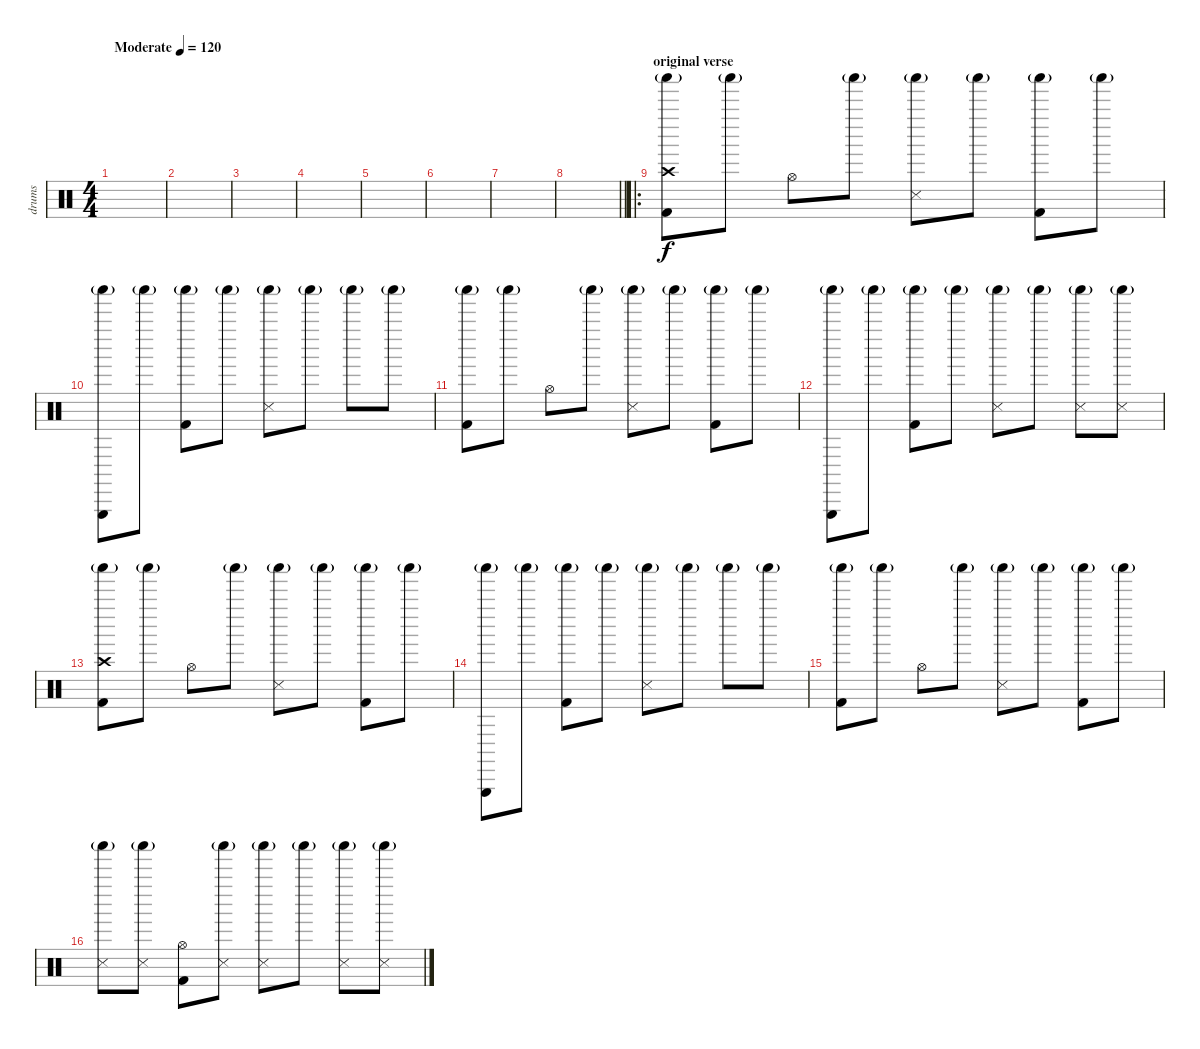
\track ("drums" "drums") {instrument percussion}
\staff {score}
\articulation defaults
\ts (4 4)
\tempo (120 "Moderate")
\clef neutral
\ks c
|
|
|
|
|
|
|
\barLineRight lightlight
|
\ro
\section ("" "original verse")
("Kick (hit) 2" "Crash high (hit)" "Shaker (hit)"{g}).8 "Shaker (hit)"{g}.8 "Hi-Hat (open)".8 "Shaker (hit)"{g}.8 ("Snare (side stick) 3" "Shaker (hit)"{g}).8 "Shaker (hit)"{g}.8 ("Kick (hit) 2" "Shaker (hit)"{g}).8 "Shaker (hit)"{g}.8 |
("Triangle (hit)" "Shaker (hit)"{g}).8 "Shaker (hit)"{g}.8 ("Kick (hit) 2" "Shaker (hit)"{g}).8 "Shaker (hit)"{g}.8 ("Snare (side stick) 3" "Shaker (hit)"{g}).8 "Shaker (hit)"{g}.8 "Shaker (hit)"{g}.8 "Shaker (hit)"{g}.8 |
("Kick (hit) 2" "Shaker (hit)"{g}).8 "Shaker (hit)"{g}.8 "Hi-Hat (open)".8 "Shaker (hit)"{g}.8 ("Snare (side stick) 3" "Shaker (hit)"{g}).8 "Shaker (hit)"{g}.8 ("Kick (hit) 2" "Shaker (hit)"{g}).8 "Shaker (hit)"{g}.8 |
("Triangle (hit)" "Shaker (hit)"{g}).8 "Shaker (hit)"{g}.8 ("Kick (hit) 2" "Shaker (hit)"{g}).8 "Shaker (hit)"{g}.8 ("Snare (side stick) 3" "Shaker (hit)"{g}).8 "Shaker (hit)"{g}.8 ("Snare (side stick) 3" "Shaker (hit)"{g}).8 ("Snare (side stick) 3" "Shaker (hit)"{g}).8 |
("Kick (hit) 2" "Crash high (hit)" "Shaker (hit)"{g}).8 "Shaker (hit)"{g}.8 "Hi-Hat (open)".8 "Shaker (hit)"{g}.8 ("Snare (side stick) 3" "Shaker (hit)"{g}).8 "Shaker (hit)"{g}.8 ("Kick (hit) 2" "Shaker (hit)"{g}).8 "Shaker (hit)"{g}.8 |
("Triangle (hit)" "Shaker (hit)"{g}).8 "Shaker (hit)"{g}.8 ("Kick (hit) 2" "Shaker (hit)"{g}).8 "Shaker (hit)"{g}.8 ("Snare (side stick) 3" "Shaker (hit)"{g}).8 "Shaker (hit)"{g}.8 "Shaker (hit)"{g}.8 "Shaker (hit)"{g}.8 |
("Kick (hit) 2" "Shaker (hit)"{g}).8 "Shaker (hit)"{g}.8 "Hi-Hat (open)".8 "Shaker (hit)"{g}.8 ("Snare (side stick) 3" "Shaker (hit)"{g}).8 "Shaker (hit)"{g}.8 ("Kick (hit) 2" "Shaker (hit)"{g}).8 "Shaker (hit)"{g}.8 |
("Snare (side stick) 3" "Shaker (hit)"{g}).8 ("Snare (side stick) 3" "Shaker (hit)"{g}).8 ("Kick (hit) 2" "Hi-Hat (open)").8 ("Snare (side stick) 3" "Shaker (hit)"{g}).8 ("Snare (side stick) 3" "Shaker (hit)"{g}).8 "Shaker (hit)"{g}.8 ("Snare (side stick) 3" "Shaker (hit)"{g}).8 ("Snare (side stick) 3" "Shaker (hit)"{g}).8
